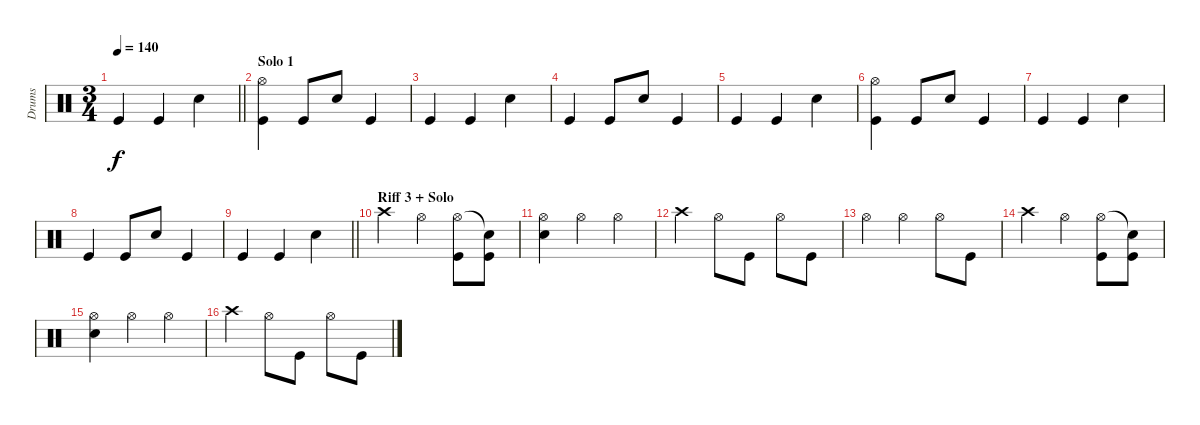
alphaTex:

\track ("Drums" "Drums") {instrument percussion}
\staff {score}
\articulation defaults
\ts (3 4)
\tempo 140
\clef neutral
\barLineRight lightlight
\ks c "Kick (hit)".4{dy f} "Kick (hit)".4 "Snare (hit) 2".4
|
\section ("" "Solo 1")
("Kick (hit)" "Hi-Hat (open)").4 "Kick (hit)".8 "Snare (hit) 2".8 "Kick (hit)".4 |
"Kick (hit)".4 "Kick (hit)".4 "Snare (hit) 2".4 |
"Kick (hit)".4 "Kick (hit)".8 "Snare (hit) 2".8 "Kick (hit)".4 |
"Kick (hit)".4 "Kick (hit)".4 "Snare (hit) 2".4 |
("Kick (hit)" "Hi-Hat (open)").4 "Kick (hit)".8 "Snare (hit) 2".8 "Kick (hit)".4 |
"Kick (hit)".4 "Kick (hit)".4 "Snare (hit) 2".4 |
"Kick (hit)".4 "Kick (hit)".8 "Snare (hit) 2".8 "Kick (hit)".4 |
\barLineRight lightlight "Kick (hit)".4 "Kick (hit)".4 "Snare (hit) 2".4
|
\section ("" "Riff 3 + Solo")
"Crash high (hit)".4 "Hi-Hat (open)".4 ("Hi-Hat (open)" "Kick (hit)").8 ("Snare (hit)"{t} "Kick (hit)").8 |
("Hi-Hat (open)" "Snare (hit) 2").4 "Hi-Hat (open)".4 "Hi-Hat (open)".4 |
"Crash high (hit)".4 "Hi-Hat (open)".8 "Kick (hit)".8 "Hi-Hat (open)".8 "Kick (hit)".8 |
"Hi-Hat (open)".4 "Hi-Hat (open)".4 "Hi-Hat (open)".8 "Kick (hit)".8 |
"Crash high (hit)".4 "Hi-Hat (open)".4 ("Hi-Hat (open)" "Kick (hit)").8 ("Snare (hit)"{t} "Kick (hit)").8 |
("Hi-Hat (open)" "Snare (hit) 2").4 "Hi-Hat (open)".4 "Hi-Hat (open)".4 |
"Crash high (hit)".4 "Hi-Hat (open)".8 "Kick (hit)".8 "Hi-Hat (open)".8 "Kick (hit)".8
